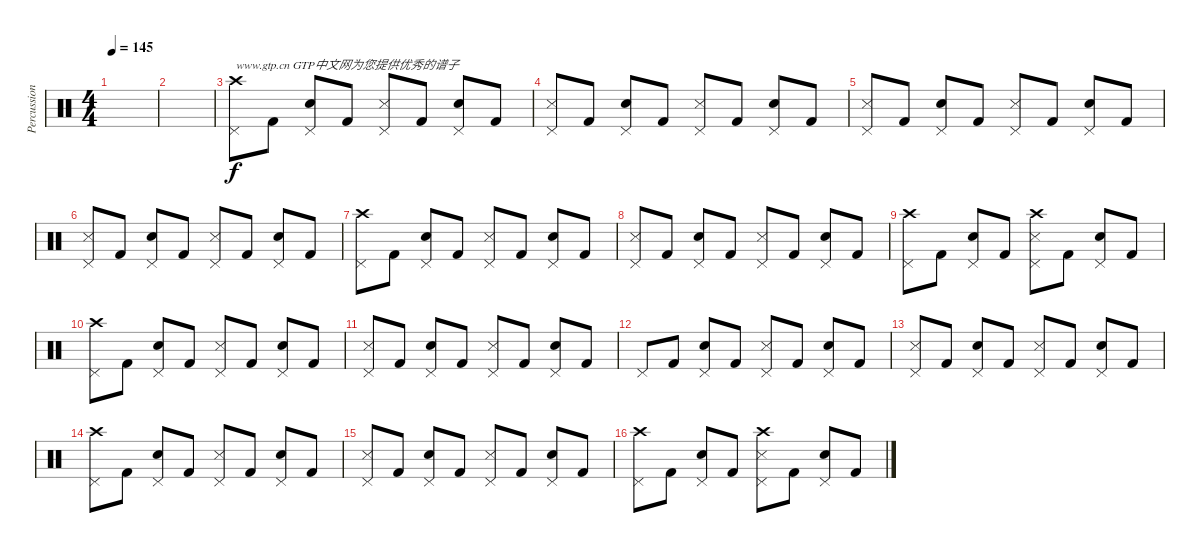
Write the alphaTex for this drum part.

\track ("Percussion" "Percussion") {instrument percussion}
\staff {score}
\articulation defaults
\ts (4 4)
\tempo 145
\clef neutral
\ks c
|
|
("Crash high (hit)" "Pedal Hi-Hat (hit)").8{txt "www.gtp.cn GTP中文网为您提供优秀的谱子"} "Kick (hit) 2".8 ("Pedal Hi-Hat (hit)" "Electric Snare (hit)").8 "Kick (hit) 2".8 ("Pedal Hi-Hat (hit)" "Snare (side stick) 3").8 "Kick (hit) 2".8 ("Pedal Hi-Hat (hit)" "Electric Snare (hit)").8 "Kick (hit) 2".8 |
("Pedal Hi-Hat (hit)" "Snare (side stick) 3").8 "Kick (hit) 2".8 ("Pedal Hi-Hat (hit)" "Electric Snare (hit)").8 "Kick (hit) 2".8 ("Pedal Hi-Hat (hit)" "Snare (side stick) 3").8 "Kick (hit) 2".8 ("Pedal Hi-Hat (hit)" "Electric Snare (hit)").8 "Kick (hit) 2".8 |
("Pedal Hi-Hat (hit)" "Snare (side stick) 3").8 "Kick (hit) 2".8 ("Pedal Hi-Hat (hit)" "Electric Snare (hit)").8 "Kick (hit) 2".8 ("Pedal Hi-Hat (hit)" "Snare (side stick) 3").8 "Kick (hit) 2".8 ("Pedal Hi-Hat (hit)" "Electric Snare (hit)").8 "Kick (hit) 2".8 |
("Pedal Hi-Hat (hit)" "Snare (side stick) 3").8 "Kick (hit) 2".8 ("Pedal Hi-Hat (hit)" "Electric Snare (hit)").8 "Kick (hit) 2".8 ("Pedal Hi-Hat (hit)" "Snare (side stick) 3").8 "Kick (hit) 2".8 ("Pedal Hi-Hat (hit)" "Electric Snare (hit)").8 "Kick (hit) 2".8 |
("Crash high (hit)" "Pedal Hi-Hat (hit)").8 "Kick (hit) 2".8 ("Pedal Hi-Hat (hit)" "Electric Snare (hit)").8 "Kick (hit) 2".8 ("Pedal Hi-Hat (hit)" "Snare (side stick) 3").8 "Kick (hit) 2".8 ("Pedal Hi-Hat (hit)" "Electric Snare (hit)").8 "Kick (hit) 2".8 |
("Pedal Hi-Hat (hit)" "Snare (side stick) 3").8 "Kick (hit) 2".8 ("Pedal Hi-Hat (hit)" "Electric Snare (hit)").8 "Kick (hit) 2".8 ("Pedal Hi-Hat (hit)" "Snare (side stick) 3").8 "Kick (hit) 2".8 ("Pedal Hi-Hat (hit)" "Electric Snare (hit)").8 "Kick (hit) 2".8 |
("Crash high (hit)" "Pedal Hi-Hat (hit)").8 "Kick (hit) 2".8 ("Pedal Hi-Hat (hit)" "Electric Snare (hit)").8 "Kick (hit) 2".8 ("Crash high (hit)" "Pedal Hi-Hat (hit)" "Snare (side stick) 3").8 "Kick (hit) 2".8 ("Pedal Hi-Hat (hit)" "Electric Snare (hit)").8 "Kick (hit) 2".8 |
("Crash high (hit)" "Pedal Hi-Hat (hit)").8 "Kick (hit) 2".8 ("Pedal Hi-Hat (hit)" "Electric Snare (hit)").8 "Kick (hit) 2".8 ("Pedal Hi-Hat (hit)" "Snare (side stick) 3").8 "Kick (hit) 2".8 ("Pedal Hi-Hat (hit)" "Electric Snare (hit)").8 "Kick (hit) 2".8 |
("Pedal Hi-Hat (hit)" "Snare (side stick) 3").8 "Kick (hit) 2".8 ("Pedal Hi-Hat (hit)" "Electric Snare (hit)").8 "Kick (hit) 2".8 ("Pedal Hi-Hat (hit)" "Snare (side stick) 3").8 "Kick (hit) 2".8 ("Pedal Hi-Hat (hit)" "Electric Snare (hit)").8 "Kick (hit) 2".8 |
"Pedal Hi-Hat (hit)".8 "Kick (hit) 2".8 ("Pedal Hi-Hat (hit)" "Electric Snare (hit)").8 "Kick (hit) 2".8 ("Pedal Hi-Hat (hit)" "Snare (side stick) 3").8 "Kick (hit) 2".8 ("Pedal Hi-Hat (hit)" "Electric Snare (hit)").8 "Kick (hit) 2".8 |
("Pedal Hi-Hat (hit)" "Snare (side stick) 3").8 "Kick (hit) 2".8 ("Pedal Hi-Hat (hit)" "Electric Snare (hit)").8 "Kick (hit) 2".8 ("Pedal Hi-Hat (hit)" "Snare (side stick) 3").8 "Kick (hit) 2".8 ("Pedal Hi-Hat (hit)" "Electric Snare (hit)").8 "Kick (hit) 2".8 |
("Crash high (hit)" "Pedal Hi-Hat (hit)").8 "Kick (hit) 2".8 ("Pedal Hi-Hat (hit)" "Electric Snare (hit)").8 "Kick (hit) 2".8 ("Pedal Hi-Hat (hit)" "Snare (side stick) 3").8 "Kick (hit) 2".8 ("Pedal Hi-Hat (hit)" "Electric Snare (hit)").8 "Kick (hit) 2".8 |
("Pedal Hi-Hat (hit)" "Snare (side stick) 3").8 "Kick (hit) 2".8 ("Pedal Hi-Hat (hit)" "Electric Snare (hit)").8 "Kick (hit) 2".8 ("Pedal Hi-Hat (hit)" "Snare (side stick) 3").8 "Kick (hit) 2".8 ("Pedal Hi-Hat (hit)" "Electric Snare (hit)").8 "Kick (hit) 2".8 |
("Crash high (hit)" "Pedal Hi-Hat (hit)").8 "Kick (hit) 2".8 ("Pedal Hi-Hat (hit)" "Electric Snare (hit)").8 "Kick (hit) 2".8 ("Crash high (hit)" "Pedal Hi-Hat (hit)" "Snare (side stick) 3").8 "Kick (hit) 2".8 ("Pedal Hi-Hat (hit)" "Electric Snare (hit)").8 "Kick (hit) 2".8
